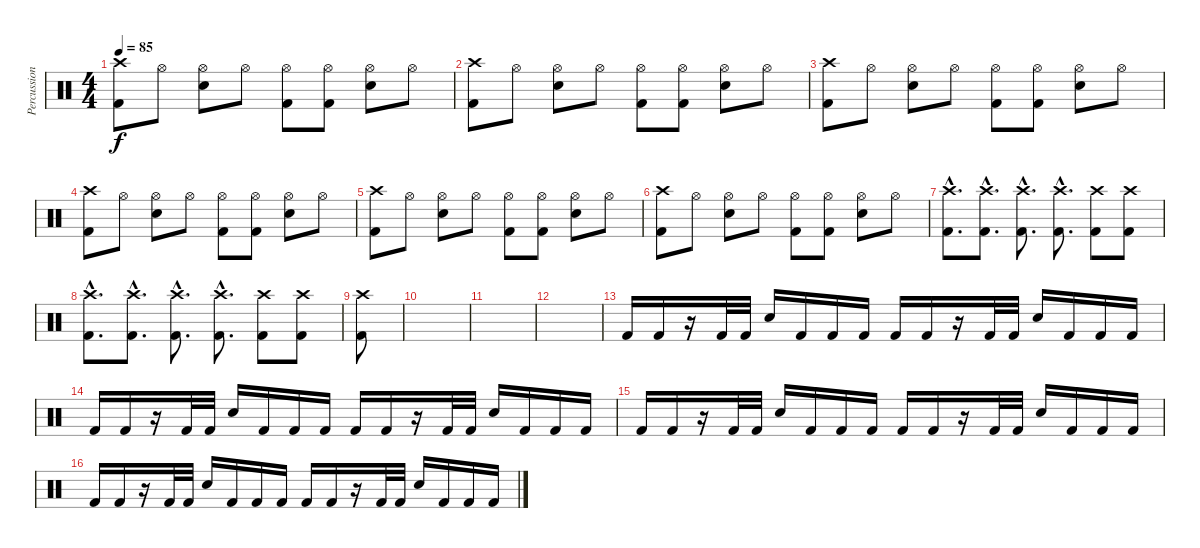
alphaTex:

\track ("Percussion" "Percussion") {instrument percussion}
\staff {score}
\articulation defaults
\ts (4 4)
\tempo 85
\clef neutral
\ks c
("Crash high (hit)" "Kick (hit) 2").8{dy f} "Hi-Hat (open)".8 ("Hi-Hat (open)" "Snare (hit) 2").8 "Hi-Hat (open)".8 ("Hi-Hat (open)" "Kick (hit) 2").8 ("Hi-Hat (open)" "Kick (hit) 2").8 ("Hi-Hat (open)" "Snare (hit) 2").8 "Hi-Hat (open)".8 |
("Crash high (hit)" "Kick (hit) 2").8 "Hi-Hat (open)".8 ("Hi-Hat (open)" "Snare (hit) 2").8 "Hi-Hat (open)".8 ("Hi-Hat (open)" "Kick (hit) 2").8 ("Hi-Hat (open)" "Kick (hit) 2").8 ("Hi-Hat (open)" "Snare (hit) 2").8 "Hi-Hat (open)".8 |
("Crash high (hit)" "Kick (hit) 2").8 "Hi-Hat (open)".8 ("Hi-Hat (open)" "Snare (hit) 2").8 "Hi-Hat (open)".8 ("Hi-Hat (open)" "Kick (hit) 2").8 ("Hi-Hat (open)" "Kick (hit) 2").8 ("Hi-Hat (open)" "Snare (hit) 2").8 "Hi-Hat (open)".8 |
("Crash high (hit)" "Kick (hit) 2").8 "Hi-Hat (open)".8 ("Hi-Hat (open)" "Snare (hit) 2").8 "Hi-Hat (open)".8 ("Hi-Hat (open)" "Kick (hit) 2").8 ("Hi-Hat (open)" "Kick (hit) 2").8 ("Hi-Hat (open)" "Snare (hit) 2").8 "Hi-Hat (open)".8 |
("Crash high (hit)" "Kick (hit) 2").8 "Hi-Hat (open)".8 ("Hi-Hat (open)" "Snare (hit) 2").8 "Hi-Hat (open)".8 ("Hi-Hat (open)" "Kick (hit) 2").8 ("Hi-Hat (open)" "Kick (hit) 2").8 ("Hi-Hat (open)" "Snare (hit) 2").8 "Hi-Hat (open)".8 |
("Crash high (hit)" "Kick (hit) 2").8 "Hi-Hat (open)".8 ("Hi-Hat (open)" "Snare (hit) 2").8 "Hi-Hat (open)".8 ("Hi-Hat (open)" "Kick (hit) 2").8 ("Hi-Hat (open)" "Kick (hit) 2").8 ("Hi-Hat (open)" "Snare (hit) 2").8 "Hi-Hat (open)".8 |
("Crash high (hit)"{hac} "Kick (hit) 2"{hac}).8{d} ("Crash high (hit)"{hac} "Kick (hit) 2"{hac}).8{d} ("Crash high (hit)"{hac} "Kick (hit) 2"{hac}).8{d} ("Crash high (hit)"{hac} "Kick (hit) 2"{hac}).8{d} ("Crash high (hit)" "Kick (hit) 2").8 ("Crash high (hit)" "Kick (hit) 2").8 |
("Crash high (hit)"{hac} "Kick (hit) 2"{hac}).8{d} ("Crash high (hit)"{hac} "Kick (hit) 2"{hac}).8{d} ("Crash high (hit)"{hac} "Kick (hit) 2"{hac}).8{d} ("Crash high (hit)"{hac} "Kick (hit) 2"{hac}).8{d} ("Crash high (hit)" "Kick (hit) 2").8 ("Crash high (hit)" "Kick (hit) 2").8 |
("Crash high (hit)" "Kick (hit) 2").8 |
|
|
|
"Kick (hit) 2".16 "Kick (hit) 2".16 r.16 "Kick (hit) 2".32 "Kick (hit) 2".32 "Snare (hit) 2".16 "Kick (hit) 2".16 "Kick (hit) 2".16 "Kick (hit) 2".16 "Kick (hit) 2".16 "Kick (hit) 2".16 r.16 "Kick (hit) 2".32 "Kick (hit) 2".32 "Snare (hit) 2".16 "Kick (hit) 2".16 "Kick (hit) 2".16 "Kick (hit) 2".16 |
"Kick (hit) 2".16 "Kick (hit) 2".16 r.16 "Kick (hit) 2".32 "Kick (hit) 2".32 "Snare (hit) 2".16 "Kick (hit) 2".16 "Kick (hit) 2".16 "Kick (hit) 2".16 "Kick (hit) 2".16 "Kick (hit) 2".16 r.16 "Kick (hit) 2".32 "Kick (hit) 2".32 "Snare (hit) 2".16 "Kick (hit) 2".16 "Kick (hit) 2".16 "Kick (hit) 2".16 |
"Kick (hit) 2".16 "Kick (hit) 2".16 r.16 "Kick (hit) 2".32 "Kick (hit) 2".32 "Snare (hit) 2".16 "Kick (hit) 2".16 "Kick (hit) 2".16 "Kick (hit) 2".16 "Kick (hit) 2".16 "Kick (hit) 2".16 r.16 "Kick (hit) 2".32 "Kick (hit) 2".32 "Snare (hit) 2".16 "Kick (hit) 2".16 "Kick (hit) 2".16 "Kick (hit) 2".16 |
"Kick (hit) 2".16 "Kick (hit) 2".16 r.16 "Kick (hit) 2".32 "Kick (hit) 2".32 "Snare (hit) 2".16 "Kick (hit) 2".16 "Kick (hit) 2".16 "Kick (hit) 2".16 "Kick (hit) 2".16 "Kick (hit) 2".16 r.16 "Kick (hit) 2".32 "Kick (hit) 2".32 "Snare (hit) 2".16 "Kick (hit) 2".16 "Kick (hit) 2".16 "Kick (hit) 2".16
